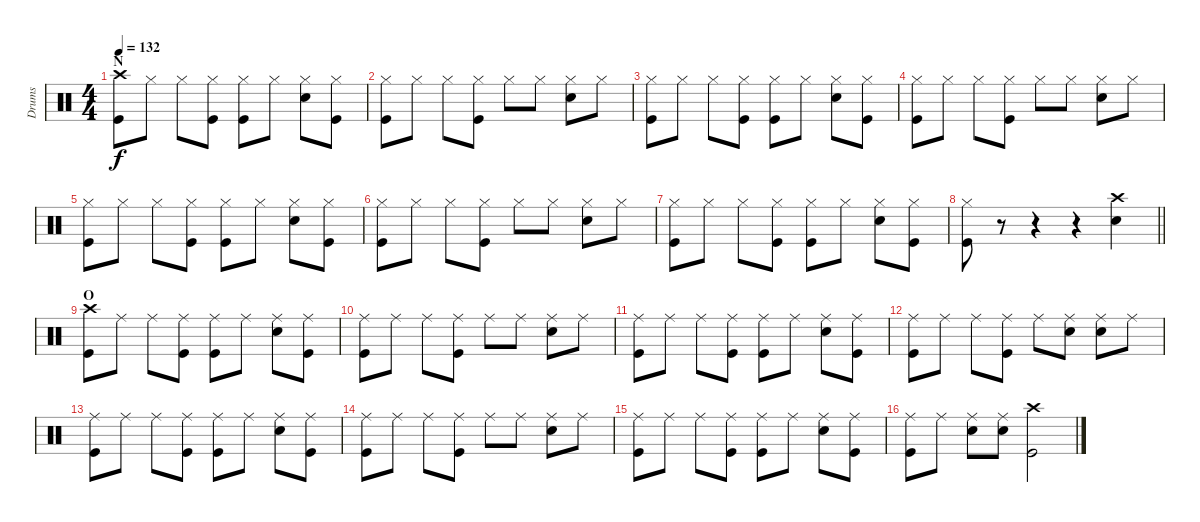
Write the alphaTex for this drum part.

\track ("Drums" "Drums") {instrument percussion}
\staff {score}
\articulation defaults
\ts (4 4)
\section ("" "N")
\tempo 132
\clef neutral
\ks c
("Crash high (hit)" "Kick (hit)").8{dy f} "Hi-Hat (closed)".8 "Hi-Hat (closed)".8 ("Hi-Hat (closed)" "Kick (hit)").8 ("Hi-Hat (closed)" "Kick (hit)").8 "Hi-Hat (closed)".8 ("Hi-Hat (closed)" "Electric Snare (hit)").8 ("Hi-Hat (closed)" "Kick (hit)").8 |
("Hi-Hat (closed)" "Kick (hit)").8 "Hi-Hat (closed)".8 "Hi-Hat (closed)".8 ("Hi-Hat (closed)" "Kick (hit)").8 "Hi-Hat (closed)".8 "Hi-Hat (closed)".8 ("Hi-Hat (closed)" "Electric Snare (hit)").8 "Hi-Hat (closed)".8 |
("Hi-Hat (closed)" "Kick (hit)").8 "Hi-Hat (closed)".8 "Hi-Hat (closed)".8 ("Hi-Hat (closed)" "Kick (hit)").8 ("Hi-Hat (closed)" "Kick (hit)").8 "Hi-Hat (closed)".8 ("Hi-Hat (closed)" "Electric Snare (hit)").8 ("Hi-Hat (closed)" "Kick (hit)").8 |
("Hi-Hat (closed)" "Kick (hit)").8 "Hi-Hat (closed)".8 "Hi-Hat (closed)".8 ("Hi-Hat (closed)" "Kick (hit)").8 "Hi-Hat (closed)".8 "Hi-Hat (closed)".8 ("Hi-Hat (closed)" "Electric Snare (hit)").8 "Hi-Hat (closed)".8 |
("Hi-Hat (closed)" "Kick (hit)").8 "Hi-Hat (closed)".8 "Hi-Hat (closed)".8 ("Hi-Hat (closed)" "Kick (hit)").8 ("Hi-Hat (closed)" "Kick (hit)").8 "Hi-Hat (closed)".8 ("Hi-Hat (closed)" "Electric Snare (hit)").8 ("Hi-Hat (closed)" "Kick (hit)").8 |
("Hi-Hat (closed)" "Kick (hit)").8 "Hi-Hat (closed)".8 "Hi-Hat (closed)".8 ("Hi-Hat (closed)" "Kick (hit)").8 "Hi-Hat (closed)".8 "Hi-Hat (closed)".8 ("Hi-Hat (closed)" "Electric Snare (hit)").8 "Hi-Hat (closed)".8 |
("Hi-Hat (closed)" "Kick (hit)").8 "Hi-Hat (closed)".8 "Hi-Hat (closed)".8 ("Hi-Hat (closed)" "Kick (hit)").8 ("Hi-Hat (closed)" "Kick (hit)").8 "Hi-Hat (closed)".8 ("Hi-Hat (closed)" "Electric Snare (hit)").8 ("Hi-Hat (closed)" "Kick (hit)").8 |
\barLineRight lightlight
("Hi-Hat (closed)" "Kick (hit)").8 r.8 r.4 r.4 ("Crash high (hit)" "Electric Snare (hit)").4 |
\section ("" "O")
("Crash high (hit)" "Kick (hit)").8 "Ride (middle)".8 "Ride (middle)".8 ("Ride (middle)" "Kick (hit)").8 ("Ride (middle)" "Kick (hit)").8 "Ride (middle)".8 ("Ride (middle)" "Electric Snare (hit)").8 ("Ride (middle)" "Kick (hit)").8 |
("Ride (middle)" "Kick (hit)").8 "Ride (middle)".8 "Ride (middle)".8 ("Ride (middle)" "Kick (hit)").8 "Ride (middle)".8 "Ride (middle)".8 ("Ride (middle)" "Electric Snare (hit)").8 "Ride (middle)".8 |
("Ride (middle)" "Kick (hit)").8 "Ride (middle)".8 "Ride (middle)".8 ("Ride (middle)" "Kick (hit)").8 ("Ride (middle)" "Kick (hit)").8 "Ride (middle)".8 ("Ride (middle)" "Electric Snare (hit)").8 ("Ride (middle)" "Kick (hit)").8 |
("Ride (middle)" "Kick (hit)").8 "Ride (middle)".8 "Ride (middle)".8 ("Ride (middle)" "Kick (hit)").8 "Ride (middle)".8 ("Ride (middle)" "Electric Snare (hit)").8 ("Ride (middle)" "Electric Snare (hit)").8 "Ride (middle)".8 |
("Ride (middle)" "Kick (hit)").8 "Ride (middle)".8 "Ride (middle)".8 ("Ride (middle)" "Kick (hit)").8 ("Ride (middle)" "Kick (hit)").8 "Ride (middle)".8 ("Ride (middle)" "Electric Snare (hit)").8 ("Ride (middle)" "Kick (hit)").8 |
("Ride (middle)" "Kick (hit)").8 "Ride (middle)".8 "Ride (middle)".8 ("Ride (middle)" "Kick (hit)").8 "Ride (middle)".8 "Ride (middle)".8 ("Ride (middle)" "Electric Snare (hit)").8 "Ride (middle)".8 |
("Ride (middle)" "Kick (hit)").8 "Ride (middle)".8 "Ride (middle)".8 ("Ride (middle)" "Kick (hit)").8 ("Ride (middle)" "Kick (hit)").8 "Ride (middle)".8 ("Ride (middle)" "Electric Snare (hit)").8 ("Ride (middle)" "Kick (hit)").8 |
("Ride (middle)" "Kick (hit)").8 "Ride (middle)".8 ("Ride (middle)" "Electric Snare (hit)").8 ("Ride (middle)" "Electric Snare (hit)").8 ("Crash high (hit)" "Kick (hit)").2
